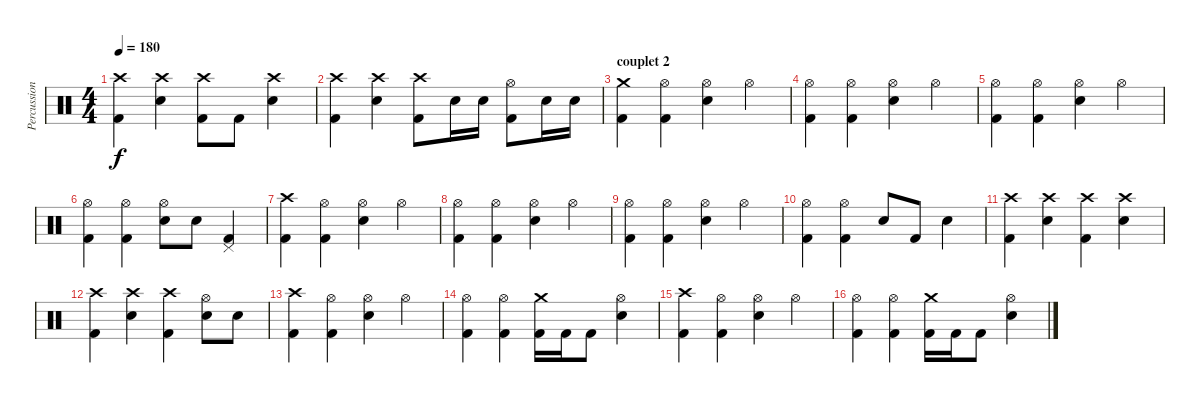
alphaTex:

\track ("Percussions" "Percussion") {instrument percussion}
\staff {score}
\articulation defaults
\ts (4 4)
\tempo 180
\clef neutral
\ks c
("Crash high (hit)" "Kick (hit) 2").4{dy f} ("Crash high (hit)" "Snare (hit) 2").4 ("Crash high (hit)" "Kick (hit) 2").8 "Kick (hit) 2".8 ("Crash high (hit)" "Snare (hit) 2").4 |
("Crash high (hit)" "Kick (hit) 2").4 ("Crash high (hit)" "Snare (hit) 2").4 ("Crash high (hit)" "Kick (hit) 2").8 "Snare (hit) 2".16 "Snare (hit) 2".16 ("Hi-Hat (open)" "Kick (hit) 2").8 "Snare (hit) 2".16 "Snare (hit) 2".16 |
\section ("" "couplet 2")
("Crash medium (hit)" "Kick (hit) 2").4 ("Hi-Hat (open)" "Kick (hit) 2").4 ("Hi-Hat (open)" "Snare (hit) 2").4 "Hi-Hat (open)".4 |
("Hi-Hat (open)" "Kick (hit) 2").4 ("Hi-Hat (open)" "Kick (hit) 2").4 ("Hi-Hat (open)" "Snare (hit) 2").4 "Hi-Hat (open)".4 |
("Hi-Hat (open)" "Kick (hit) 2").4 ("Hi-Hat (open)" "Kick (hit) 2").4 ("Hi-Hat (open)" "Snare (hit) 2").4 "Hi-Hat (open)".4 |
("Hi-Hat (open)" "Kick (hit) 2").4 ("Hi-Hat (open)" "Kick (hit) 2").4 ("Hi-Hat (open)" "Snare (hit) 2").8 "Snare (hit) 2".8 ("Pedal Hi-Hat (hit)" "Kick (hit) 2").4 |
("Crash high (hit)" "Kick (hit) 2").4 ("Hi-Hat (open)" "Kick (hit) 2").4 ("Hi-Hat (open)" "Snare (hit) 2").4 "Hi-Hat (open)".4 |
("Hi-Hat (open)" "Kick (hit) 2").4 ("Hi-Hat (open)" "Kick (hit) 2").4 ("Hi-Hat (open)" "Snare (hit) 2").4 "Hi-Hat (open)".4 |
("Hi-Hat (open)" "Kick (hit) 2").4 ("Hi-Hat (open)" "Kick (hit) 2").4 ("Hi-Hat (open)" "Snare (hit) 2").4 "Hi-Hat (open)".4 |
("Hi-Hat (open)" "Kick (hit) 2").4 ("Hi-Hat (open)" "Kick (hit) 2").4 "Snare (hit) 2".8 "Kick (hit) 2".8 "Snare (hit) 2".4 |
("Crash high (hit)" "Kick (hit) 2").4 ("Crash high (hit)" "Snare (hit) 2").4 ("Crash high (hit)" "Kick (hit) 2").4 ("Crash high (hit)" "Snare (hit) 2").4 |
("Crash high (hit)" "Kick (hit) 2").4 ("Crash high (hit)" "Snare (hit) 2").4 ("Crash high (hit)" "Kick (hit) 2").4 ("Hi-Hat (open)" "Snare (hit) 2").8 "Snare (hit) 2".8 |
("Crash high (hit)" "Kick (hit) 2").4 ("Hi-Hat (open)" "Kick (hit) 2").4 ("Hi-Hat (open)" "Snare (hit) 2").4 "Hi-Hat (open)".4 |
("Hi-Hat (open)" "Kick (hit) 2").4 ("Hi-Hat (open)" "Kick (hit) 2").4 ("Crash medium (hit)" "Kick (hit) 2").16 "Kick (hit) 2".16 "Kick (hit) 2".8 ("Hi-Hat (open)" "Snare (hit) 2").4 |
("Crash high (hit)" "Kick (hit) 2").4 ("Hi-Hat (open)" "Kick (hit) 2").4 ("Hi-Hat (open)" "Snare (hit) 2").4 "Hi-Hat (open)".4 |
("Hi-Hat (open)" "Kick (hit) 2").4 ("Hi-Hat (open)" "Kick (hit) 2").4 ("Crash medium (hit)" "Kick (hit) 2").16 "Kick (hit) 2".16 "Kick (hit) 2".8 ("Hi-Hat (open)" "Snare (hit) 2").4
